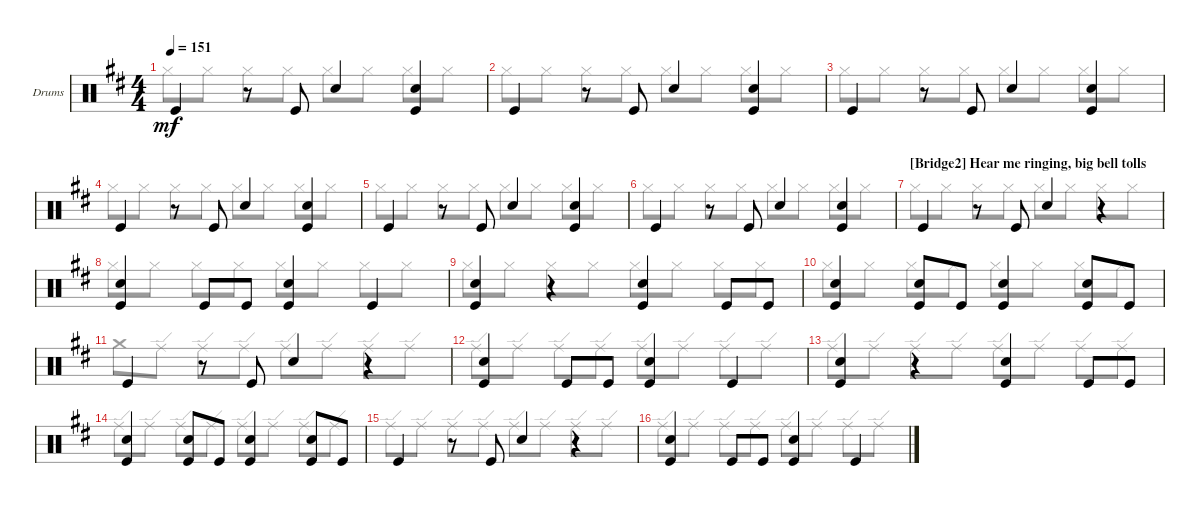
\bracketExtendMode groupsimilarinstruments
\firstSystemTrackNameOrientation horizontal
\otherSystemsTrackNameOrientation horizontal
\track ("Drumkit" "Drums") {instrument percussion}
\staff {score}
\articulation defaults
\voice
\ts (4 4)
\tempo 151
\clef neutral
\ks d "Kick (hit)".4{dy mf}
r.8 "Kick (hit)".8 "Snare (hit) 2".4 ("Kick (hit)" "Snare (hit) 2").4 |
"Kick (hit)".4 r.8 "Kick (hit)".8 "Snare (hit) 2".4 ("Kick (hit)" "Snare (hit) 2").4 |
"Kick (hit)".4 r.8 "Kick (hit)".8 "Snare (hit) 2".4 ("Kick (hit)" "Snare (hit) 2").4 |
"Kick (hit)".4 r.8 "Kick (hit)".8 "Snare (hit) 2".4 ("Kick (hit)" "Snare (hit) 2").4 |
"Kick (hit)".4 r.8 "Kick (hit)".8 "Snare (hit) 2".4 ("Kick (hit)" "Snare (hit) 2").4 |
"Kick (hit)".4 r.8 "Kick (hit)".8 "Snare (hit) 2".4 ("Kick (hit)" "Snare (hit) 2").4 |
\section ("" "[Bridge2] Hear me ringing, big bell tolls")
"Kick (hit)".4 r.8 "Kick (hit)".8 "Snare (hit) 2".4 r.4 |
("Kick (hit)" "Snare (hit) 2").4 "Kick (hit)".8 "Kick (hit)".8 ("Kick (hit)" "Snare (hit) 2").4 "Kick (hit)".4 |
("Kick (hit)" "Snare (hit) 2").4 r.4 ("Kick (hit)" "Snare (hit) 2").4 "Kick (hit)".8 "Kick (hit)".8 |
("Kick (hit)" "Snare (hit) 2").4 ("Kick (hit)" "Snare (hit) 2").8 "Kick (hit)".8 ("Kick (hit)" "Snare (hit) 2").4 ("Kick (hit)" "Snare (hit) 2").8 "Kick (hit)".8 |
"Kick (hit)".4 r.8 "Kick (hit)".8 "Snare (hit) 2".4 r.4 |
("Kick (hit)" "Snare (hit) 2").4 "Kick (hit)".8 "Kick (hit)".8 ("Kick (hit)" "Snare (hit) 2").4 "Kick (hit)".4 |
("Kick (hit)" "Snare (hit) 2").4 r.4 ("Kick (hit)" "Snare (hit) 2").4 "Kick (hit)".8 "Kick (hit)".8 |
("Kick (hit)" "Snare (hit) 2").4 ("Kick (hit)" "Snare (hit) 2").8 "Kick (hit)".8 ("Kick (hit)" "Snare (hit) 2").4 ("Kick (hit)" "Snare (hit) 2").8 "Kick (hit)".8 |
"Kick (hit)".4 r.8 "Kick (hit)".8 "Snare (hit) 2".4 r.4 |
("Kick (hit)" "Snare (hit) 2").4 "Kick (hit)".8 "Kick (hit)".8 ("Kick (hit)" "Snare (hit) 2").4 "Kick (hit)".4
\voice
\clef neutral
\ottava regular
\simile none
\ks d "Hi-Hat (closed)".8{dy mf} "Hi-Hat (closed)".8 "Hi-Hat (closed)".8 "Hi-Hat (closed)".8 "Hi-Hat (closed)".8 "Hi-Hat (closed)".8 "Hi-Hat (closed)".8 "Hi-Hat (closed)".8
|
"Hi-Hat (closed)".8 "Hi-Hat (closed)".8 "Hi-Hat (closed)".8 "Hi-Hat (closed)".8 "Hi-Hat (closed)".8 "Hi-Hat (closed)".8 "Hi-Hat (closed)".8 "Hi-Hat (closed)".8 |
"Hi-Hat (closed)".8 "Hi-Hat (closed)".8 "Hi-Hat (closed)".8 "Hi-Hat (closed)".8 "Hi-Hat (closed)".8 "Hi-Hat (closed)".8 "Hi-Hat (closed)".8 "Hi-Hat (closed)".8 |
"Hi-Hat (closed)".8 "Hi-Hat (closed)".8 "Hi-Hat (closed)".8 "Hi-Hat (closed)".8 "Hi-Hat (closed)".8 "Hi-Hat (closed)".8 "Hi-Hat (closed)".8 "Hi-Hat (closed)".8 |
"Hi-Hat (closed)".8 "Hi-Hat (closed)".8 "Hi-Hat (closed)".8 "Hi-Hat (closed)".8 "Hi-Hat (closed)".8 "Hi-Hat (closed)".8 "Hi-Hat (closed)".8 "Hi-Hat (closed)".8 |
"Hi-Hat (closed)".8 "Hi-Hat (closed)".8 "Hi-Hat (closed)".8 "Hi-Hat (closed)".8 "Hi-Hat (closed)".8 "Hi-Hat (closed)".8 "Hi-Hat (closed)".8 "Hi-Hat (closed)".8 |
"Hi-Hat (closed)".8 "Hi-Hat (closed)".8 "Hi-Hat (closed)".8 "Hi-Hat (closed)".8 "Hi-Hat (closed)".8 "Hi-Hat (closed)".8 "Hi-Hat (closed)".8 "Hi-Hat (closed)".8 |
"Hi-Hat (closed)".8 "Hi-Hat (closed)".8 "Hi-Hat (closed)".8 "Hi-Hat (closed)".8 "Hi-Hat (closed)".8 "Hi-Hat (closed)".8 "Hi-Hat (closed)".8 "Hi-Hat (closed)".8 |
"Hi-Hat (closed)".8 "Hi-Hat (closed)".8 "Hi-Hat (closed)".8 "Hi-Hat (closed)".8 "Hi-Hat (closed)".8 "Hi-Hat (closed)".8 "Hi-Hat (closed)".8 "Hi-Hat (closed)".8 |
"Hi-Hat (closed)".8 "Hi-Hat (closed)".8 "Hi-Hat (closed)".8 "Hi-Hat (closed)".8 "Hi-Hat (closed)".8 "Hi-Hat (closed)".8 "Hi-Hat (closed)".8 "Hi-Hat (closed)".8 |
"Crash medium (hit)".8 "Ride (edge)".8 "Ride (edge)".8 "Ride (edge)".8 "Ride (edge)".8 "Ride (edge)".8 "Ride (edge)".8 "Ride (edge)".8 |
"Ride (edge)".8 "Ride (edge)".8 "Ride (edge)".8 "Ride (edge)".8 "Ride (edge)".8 "Ride (edge)".8 "Ride (edge)".8 "Ride (edge)".8 |
"Ride (edge)".8 "Ride (edge)".8 "Ride (edge)".8 "Ride (edge)".8 "Ride (edge)".8 "Ride (edge)".8 "Ride (edge)".8 "Ride (edge)".8 |
"Ride (edge)".8 "Ride (edge)".8 "Ride (edge)".8 "Ride (edge)".8 "Ride (edge)".8 "Ride (edge)".8 "Ride (edge)".8 "Ride (edge)".8 |
"Ride (edge)".8 "Ride (edge)".8 "Ride (edge)".8 "Ride (edge)".8 "Ride (edge)".8 "Ride (edge)".8 "Ride (edge)".8 "Ride (edge)".8 |
"Ride (edge)".8 "Ride (edge)".8 "Ride (edge)".8 "Ride (edge)".8 "Ride (edge)".8 "Ride (edge)".8 "Ride (edge)".8 "Ride (edge)".8
